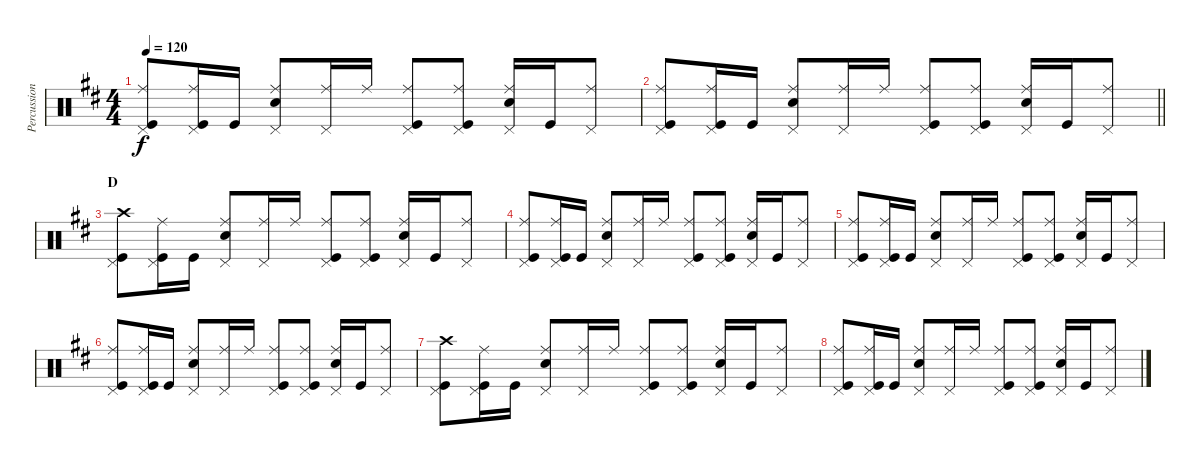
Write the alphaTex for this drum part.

\track ("Percussion" "Percussion") {instrument percussion}
\staff {score}
\articulation defaults
\ts (4 4)
\tempo 120
\clef neutral
\ks d
("Kick (hit)" "Ride (middle)" "Pedal Hi-Hat (hit)").8{dy f} ("Kick (hit)" "Ride (middle)" "Pedal Hi-Hat (hit)").16 "Kick (hit)".16 ("Snare (hit) 2" "Ride (middle)" "Pedal Hi-Hat (hit)").8 ("Ride (middle)" "Pedal Hi-Hat (hit)").16 "Ride (middle)".16 ("Kick (hit)" "Ride (middle)" "Pedal Hi-Hat (hit)").8 ("Ride (middle)" "Kick (hit)" "Pedal Hi-Hat (hit)").8 ("Snare (hit) 2" "Ride (middle)" "Pedal Hi-Hat (hit)").16 "Kick (hit)".16 ("Ride (middle)" "Pedal Hi-Hat (hit)").8 |
\barLineRight lightlight
("Kick (hit)" "Ride (middle)" "Pedal Hi-Hat (hit)").8 ("Kick (hit)" "Ride (middle)" "Pedal Hi-Hat (hit)").16 "Kick (hit)".16 ("Snare (hit) 2" "Ride (middle)" "Pedal Hi-Hat (hit)").8 ("Ride (middle)" "Pedal Hi-Hat (hit)").16 "Ride (middle)".16 ("Kick (hit)" "Ride (middle)" "Pedal Hi-Hat (hit)").8 ("Ride (middle)" "Kick (hit)" "Pedal Hi-Hat (hit)").8 ("Snare (hit) 2" "Ride (middle)" "Pedal Hi-Hat (hit)").16 "Kick (hit)".16 ("Ride (middle)" "Pedal Hi-Hat (hit)").8 |
\section ("" "D")
("Kick (hit)" "Crash high (hit)" "Pedal Hi-Hat (hit)").8 ("Kick (hit)" "Ride (middle)" "Pedal Hi-Hat (hit)").16 "Kick (hit)".16 ("Snare (hit) 2" "Ride (middle)" "Pedal Hi-Hat (hit)").8 ("Ride (middle)" "Pedal Hi-Hat (hit)").16 "Ride (middle)".16 ("Kick (hit)" "Ride (middle)" "Pedal Hi-Hat (hit)").8 ("Ride (middle)" "Kick (hit)" "Pedal Hi-Hat (hit)").8 ("Snare (hit) 2" "Ride (middle)" "Pedal Hi-Hat (hit)").16 "Kick (hit)".16 ("Ride (middle)" "Pedal Hi-Hat (hit)").8 |
("Kick (hit)" "Ride (middle)" "Pedal Hi-Hat (hit)").8 ("Kick (hit)" "Ride (middle)" "Pedal Hi-Hat (hit)").16 "Kick (hit)".16 ("Snare (hit) 2" "Ride (middle)" "Pedal Hi-Hat (hit)").8 ("Ride (middle)" "Pedal Hi-Hat (hit)").16 "Ride (middle)".16 ("Kick (hit)" "Ride (middle)" "Pedal Hi-Hat (hit)").8 ("Ride (middle)" "Kick (hit)" "Pedal Hi-Hat (hit)").8 ("Snare (hit) 2" "Ride (middle)" "Pedal Hi-Hat (hit)").16 "Kick (hit)".16 ("Ride (middle)" "Pedal Hi-Hat (hit)").8 |
("Kick (hit)" "Ride (middle)" "Pedal Hi-Hat (hit)").8 ("Kick (hit)" "Ride (middle)" "Pedal Hi-Hat (hit)").16 "Kick (hit)".16 ("Snare (hit) 2" "Ride (middle)" "Pedal Hi-Hat (hit)").8 ("Ride (middle)" "Pedal Hi-Hat (hit)").16 "Ride (middle)".16 ("Kick (hit)" "Ride (middle)" "Pedal Hi-Hat (hit)").8 ("Ride (middle)" "Kick (hit)" "Pedal Hi-Hat (hit)").8 ("Snare (hit) 2" "Ride (middle)" "Pedal Hi-Hat (hit)").16 "Kick (hit)".16 ("Ride (middle)" "Pedal Hi-Hat (hit)").8 |
("Kick (hit)" "Ride (middle)" "Pedal Hi-Hat (hit)").8 ("Kick (hit)" "Ride (middle)" "Pedal Hi-Hat (hit)").16 "Kick (hit)".16 ("Snare (hit) 2" "Ride (middle)" "Pedal Hi-Hat (hit)").8 ("Ride (middle)" "Pedal Hi-Hat (hit)").16 "Ride (middle)".16 ("Kick (hit)" "Ride (middle)" "Pedal Hi-Hat (hit)").8 ("Ride (middle)" "Kick (hit)" "Pedal Hi-Hat (hit)").8 ("Snare (hit) 2" "Ride (middle)" "Pedal Hi-Hat (hit)").16 "Kick (hit)".16 ("Ride (middle)" "Pedal Hi-Hat (hit)").8 |
("Kick (hit)" "Crash high (hit)" "Pedal Hi-Hat (hit)").8 ("Kick (hit)" "Ride (middle)" "Pedal Hi-Hat (hit)").16 "Kick (hit)".16 ("Snare (hit) 2" "Ride (middle)" "Pedal Hi-Hat (hit)").8 ("Ride (middle)" "Pedal Hi-Hat (hit)").16 "Ride (middle)".16 ("Kick (hit)" "Ride (middle)" "Pedal Hi-Hat (hit)").8 ("Ride (middle)" "Kick (hit)" "Pedal Hi-Hat (hit)").8 ("Snare (hit) 2" "Ride (middle)" "Pedal Hi-Hat (hit)").16 "Kick (hit)".16 ("Ride (middle)" "Pedal Hi-Hat (hit)").8 |
("Kick (hit)" "Ride (middle)" "Pedal Hi-Hat (hit)").8 ("Kick (hit)" "Ride (middle)" "Pedal Hi-Hat (hit)").16 "Kick (hit)".16 ("Snare (hit) 2" "Ride (middle)" "Pedal Hi-Hat (hit)").8 ("Ride (middle)" "Pedal Hi-Hat (hit)").16 "Ride (middle)".16 ("Kick (hit)" "Ride (middle)" "Pedal Hi-Hat (hit)").8 ("Ride (middle)" "Kick (hit)" "Pedal Hi-Hat (hit)").8 ("Snare (hit) 2" "Ride (middle)" "Pedal Hi-Hat (hit)").16 "Kick (hit)".16 ("Ride (middle)" "Pedal Hi-Hat (hit)").8
